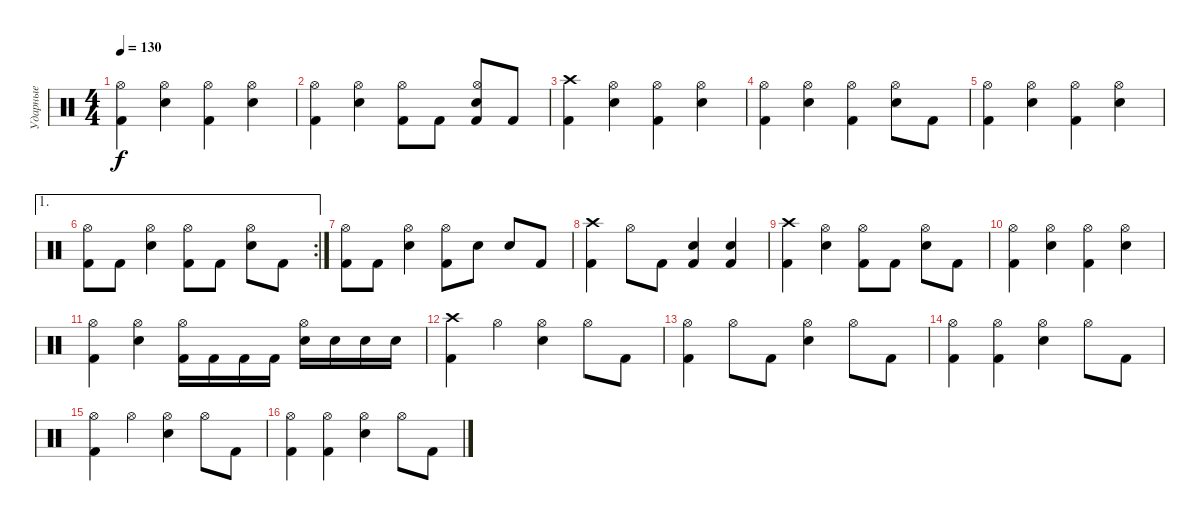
\track ("Ударные" "Ударные") {instrument percussion}
\staff
\articulation defaults
\ts (4 4)
\tempo 130
\clef neutral
\ks c
("Kick (hit) 2" "Hi-Hat (open)").4{dy f} ("Snare (hit) 2" "Hi-Hat (open)").4 ("Kick (hit) 2" "Hi-Hat (open)").4 ("Snare (hit) 2" "Hi-Hat (open)").4 |
("Kick (hit) 2" "Hi-Hat (open)").4 ("Snare (hit) 2" "Hi-Hat (open)").4 ("Kick (hit) 2" "Hi-Hat (open)").8 "Kick (hit) 2".8 ("Kick (hit) 2" "Snare (hit) 2" "Hi-Hat (open)").8 "Kick (hit) 2".8 |
("Kick (hit) 2" "Crash high (hit)").4 ("Snare (hit) 2" "Hi-Hat (open)").4 ("Kick (hit) 2" "Hi-Hat (open)").4 ("Snare (hit) 2" "Hi-Hat (open)").4 |
("Kick (hit) 2" "Hi-Hat (open)").4 ("Snare (hit) 2" "Hi-Hat (open)").4 ("Kick (hit) 2" "Hi-Hat (open)").4 ("Snare (hit) 2" "Hi-Hat (open)").8 "Kick (hit) 2".8 |
("Kick (hit) 2" "Hi-Hat (open)").4 ("Snare (hit) 2" "Hi-Hat (open)").4 ("Kick (hit) 2" "Hi-Hat (open)").4 ("Snare (hit) 2" "Hi-Hat (open)").4 |
\ae 1
\rc 2
("Kick (hit) 2" "Hi-Hat (open)").8 "Kick (hit) 2".8 ("Snare (hit) 2" "Hi-Hat (open)").4 ("Kick (hit) 2" "Hi-Hat (open)").8 "Kick (hit) 2".8 ("Snare (hit) 2" "Hi-Hat (open)").8 "Kick (hit) 2".8 |
("Kick (hit) 2" "Hi-Hat (open)").8 "Kick (hit) 2".8 ("Snare (hit) 2" "Hi-Hat (open)").4 ("Kick (hit) 2" "Hi-Hat (open)").8 "Snare (hit) 2".8 "Snare (hit) 2".8 "Kick (hit) 2".8 |
("Kick (hit) 2" "Crash high (hit)").4 "Hi-Hat (open)".8 "Kick (hit) 2".8 ("Kick (hit) 2" "Snare (hit) 2").4 ("Kick (hit) 2" "Snare (hit) 2").4 |
("Kick (hit) 2" "Crash high (hit)").4 ("Snare (hit) 2" "Hi-Hat (open)").4 ("Kick (hit) 2" "Hi-Hat (open)").8 "Kick (hit) 2".8 ("Snare (hit) 2" "Hi-Hat (open)").8 "Kick (hit) 2".8 |
("Kick (hit) 2" "Hi-Hat (open)").4 ("Snare (hit) 2" "Hi-Hat (open)").4 ("Kick (hit) 2" "Hi-Hat (open)").4 ("Snare (hit) 2" "Hi-Hat (open)").4 |
("Kick (hit) 2" "Hi-Hat (open)").4 ("Snare (hit) 2" "Hi-Hat (open)").4 ("Kick (hit) 2" "Hi-Hat (open)").16 "Kick (hit) 2".16 "Kick (hit) 2".16 "Kick (hit) 2".16 ("Snare (hit) 2" "Hi-Hat (open)").16 "Electric Snare (hit)".16 "Electric Snare (hit)".16 "Electric Snare (hit)".16 |
("Kick (hit) 2" "Crash high (hit)").4 "Hi-Hat (open)".4 ("Snare (hit) 2" "Hi-Hat (open)").4 "Hi-Hat (open)".8 "Kick (hit) 2".8 |
("Kick (hit) 2" "Hi-Hat (open)").4 "Hi-Hat (open)".8 "Kick (hit) 2".8 ("Snare (hit) 2" "Hi-Hat (open)").4 "Hi-Hat (open)".8 "Kick (hit) 2".8 |
("Kick (hit) 2" "Hi-Hat (open)").4 ("Kick (hit) 2" "Hi-Hat (open)").4 ("Snare (hit) 2" "Hi-Hat (open)").4 "Hi-Hat (open)".8 "Kick (hit) 2".8 |
("Kick (hit) 2" "Hi-Hat (open)").4 "Hi-Hat (open)".4 ("Snare (hit) 2" "Hi-Hat (open)").4 "Hi-Hat (open)".8 "Kick (hit) 2".8 |
("Kick (hit) 2" "Hi-Hat (open)").4 ("Kick (hit) 2" "Hi-Hat (open)").4 ("Snare (hit) 2" "Hi-Hat (open)").4 "Hi-Hat (open)".8 "Kick (hit) 2".8
